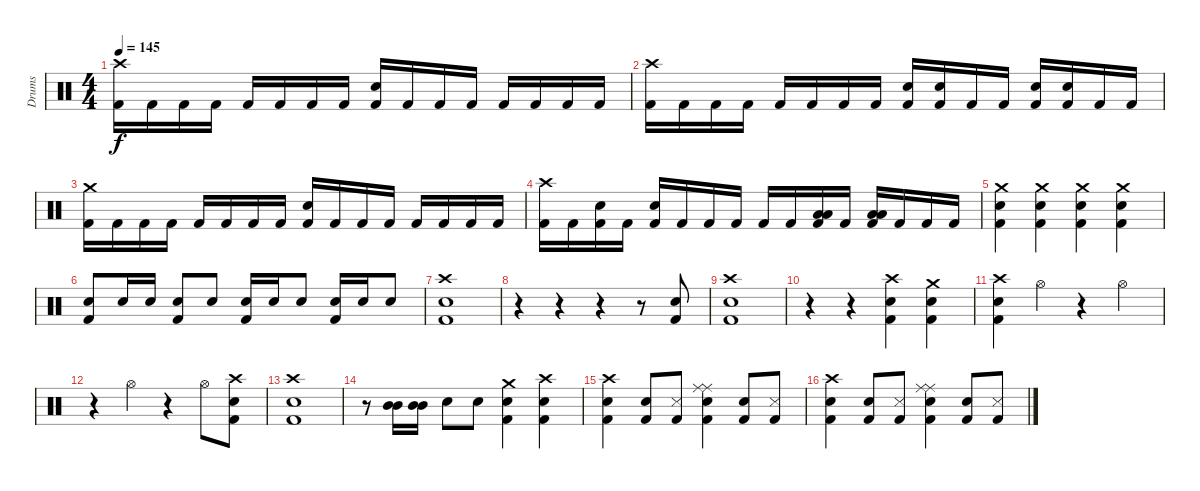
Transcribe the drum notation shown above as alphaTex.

\track ("Drums" "Drums") {instrument percussion}
\staff {score}
\articulation defaults
\ts (4 4)
\tempo 145
\clef neutral
\ks c
("Crash high (hit)" "Kick (hit) 2").16{dy f} "Kick (hit) 2".16 "Kick (hit) 2".16 "Kick (hit) 2".16 "Kick (hit) 2".16 "Kick (hit) 2".16 "Kick (hit) 2".16 "Kick (hit) 2".16 ("Snare (hit) 2" "Kick (hit) 2").16 "Kick (hit) 2".16 "Kick (hit) 2".16 "Kick (hit) 2".16 "Kick (hit) 2".16 "Kick (hit) 2".16 "Kick (hit) 2".16 "Kick (hit) 2".16 |
("Crash high (hit)" "Kick (hit) 2").16 "Kick (hit) 2".16 "Kick (hit) 2".16 "Kick (hit) 2".16 "Kick (hit) 2".16 "Kick (hit) 2".16 "Kick (hit) 2".16 "Kick (hit) 2".16 ("Snare (hit) 2" "Kick (hit) 2").16 ("Snare (hit) 2" "Kick (hit) 2").16 "Kick (hit) 2".16 "Kick (hit) 2".16 ("Snare (hit) 2" "Kick (hit) 2").16 ("Snare (hit) 2" "Kick (hit) 2").16 "Kick (hit) 2".16 "Kick (hit) 2".16 |
("Crash medium (hit)" "Kick (hit) 2").16 "Kick (hit) 2".16 "Kick (hit) 2".16 "Kick (hit) 2".16 "Kick (hit) 2".16 "Kick (hit) 2".16 "Kick (hit) 2".16 "Kick (hit) 2".16 ("Snare (hit) 2" "Kick (hit) 2").16 "Kick (hit) 2".16 "Kick (hit) 2".16 "Kick (hit) 2".16 "Kick (hit) 2".16 "Kick (hit) 2".16 "Kick (hit) 2".16 "Kick (hit) 2".16 |
("Crash high (hit)" "Kick (hit) 2").16 "Kick (hit) 2".16 ("Snare (hit) 2" "Kick (hit) 2").16 "Kick (hit) 2".16 ("Snare (hit) 2" "Kick (hit) 2").16 "Kick (hit) 2".16 "Kick (hit) 2".16 "Kick (hit) 2".16 "Kick (hit) 2".16 "Kick (hit) 2".16 ("Low Tom (hit)" "Low Tom (hit)" "Kick (hit) 2").16 "Kick (hit) 2".16 ("Low Tom (hit)" "Low Tom (hit)" "Kick (hit) 2").16 "Kick (hit) 2".16 "Kick (hit) 2".16 "Kick (hit) 2".16 |
("Crash medium (hit)" "Snare (hit) 2" "Kick (hit) 2").4 ("Crash medium (hit)" "Snare (hit) 2" "Kick (hit) 2").4 ("Crash medium (hit)" "Snare (hit) 2" "Kick (hit) 2").4 ("Crash medium (hit)" "Snare (hit) 2" "Kick (hit) 2").4 |
("Snare (hit) 2" "Kick (hit) 2").8 "Snare (hit) 2".16 "Snare (hit) 2".16 ("Snare (hit) 2" "Kick (hit) 2").8 "Snare (hit) 2".8 ("Snare (hit) 2" "Kick (hit) 2").16 "Snare (hit) 2".16 "Snare (hit) 2".8 ("Snare (hit) 2" "Kick (hit) 2").16 "Snare (hit) 2".16 "Snare (hit) 2".8 |
("Crash high (hit)" "Snare (hit) 2" "Kick (hit) 2").1 |
r.4 r.4 r.4 r.8 ("Snare (hit) 2" "Kick (hit) 2").8 |
("Crash high (hit)" "Snare (hit) 2" "Kick (hit) 2").1 |
r.4 r.4 ("Crash high (hit)" "Snare (hit) 2" "Kick (hit) 2").4 ("Crash medium (hit)" "Snare (hit) 2" "Kick (hit) 2").4 |
("Crash high (hit)" "Snare (hit) 2" "Kick (hit) 2").4 "Hi-Hat (open)".4 r.4 "Hi-Hat (open)".4 |
r.4 "Hi-Hat (open)".4 r.4 "Hi-Hat (open)".8 ("Crash high (hit)" "Snare (hit) 2" "Kick (hit) 2").8 |
("Crash high (hit)" "Snare (hit) 2" "Kick (hit) 2").1 |
r.8 ("Mid Tom (hit)" "Mid Tom (hit)").16 ("Mid Tom (hit)" "Mid Tom (hit)").16 "Snare (hit) 2".8 "Snare (hit) 2".8 ("Kick (hit) 2" "Crash medium (hit)" "Snare (hit) 2").4 ("Kick (hit) 2" "Crash high (hit)" "Snare (hit) 2").4 |
("Crash high (hit)" "Snare (hit) 2" "Kick (hit) 2").4 ("Snare (hit) 2" "Kick (hit) 2").8 ("Snare (side stick) 3" "Kick (hit) 2").8 ("Ride (middle)" "Ride (middle)" "Snare (hit) 2" "Kick (hit) 2").4 ("Snare (hit) 2" "Kick (hit) 2").8 ("Snare (side stick) 3" "Kick (hit) 2").8 |
("Crash high (hit)" "Snare (hit) 2" "Kick (hit) 2").4 ("Snare (hit) 2" "Kick (hit) 2").8 ("Snare (side stick) 3" "Kick (hit) 2").8 ("Ride (middle)" "Ride (middle)" "Snare (hit) 2" "Kick (hit) 2").4 ("Snare (hit) 2" "Kick (hit) 2").8 ("Snare (side stick) 3" "Kick (hit) 2").8
